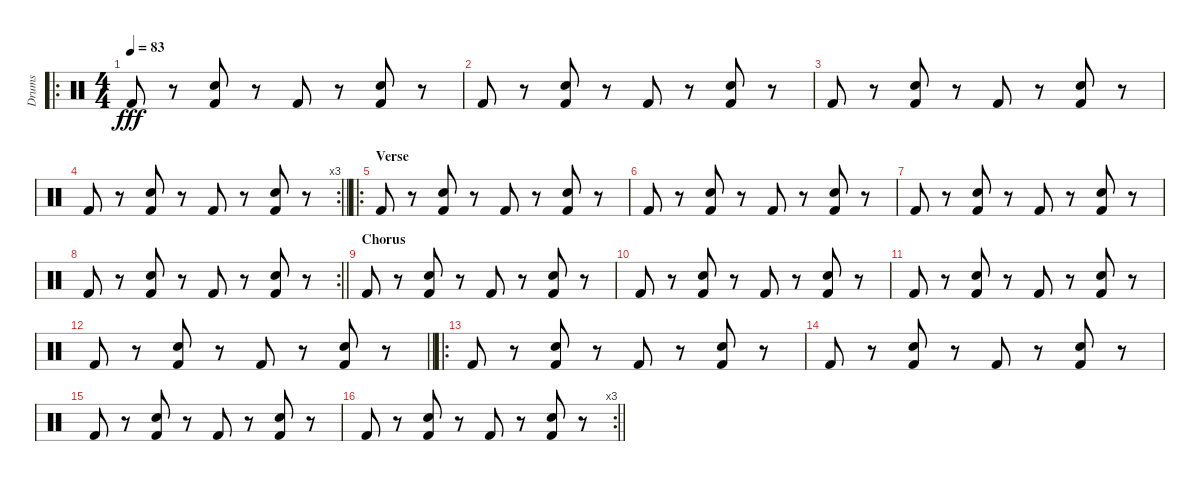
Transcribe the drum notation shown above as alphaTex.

\track ("Drums" "Drums") {instrument percussion}
\staff {score}
\articulation defaults
\ro
\ts (4 4)
\tempo 83
\clef neutral
\ks c "Kick (hit) 2".8{dy fff}
r.8 ("Hand Clap (hit)" "Kick (hit) 2").8 r.8 "Kick (hit) 2".8 r.8 ("Hand Clap (hit)" "Kick (hit) 2").8 r.8 |
"Kick (hit) 2".8 r.8 ("Hand Clap (hit)" "Kick (hit) 2").8 r.8 "Kick (hit) 2".8 r.8 ("Hand Clap (hit)" "Kick (hit) 2").8 r.8 |
"Kick (hit) 2".8 r.8 ("Hand Clap (hit)" "Kick (hit) 2").8 r.8 "Kick (hit) 2".8 r.8 ("Hand Clap (hit)" "Kick (hit) 2").8 r.8 |
\rc 3
\barLineRight lightlight "Kick (hit) 2".8
r.8 ("Hand Clap (hit)" "Kick (hit) 2").8 r.8 "Kick (hit) 2".8 r.8 ("Hand Clap (hit)" "Kick (hit) 2").8 r.8 |
\ro
\section ("" "Verse")
"Kick (hit) 2".8 r.8 ("Hand Clap (hit)" "Kick (hit) 2").8 r.8 "Kick (hit) 2".8 r.8 ("Hand Clap (hit)" "Kick (hit) 2").8 r.8 |
"Kick (hit) 2".8 r.8 ("Hand Clap (hit)" "Kick (hit) 2").8 r.8 "Kick (hit) 2".8 r.8 ("Hand Clap (hit)" "Kick (hit) 2").8 r.8 |
"Kick (hit) 2".8 r.8 ("Hand Clap (hit)" "Kick (hit) 2").8 r.8 "Kick (hit) 2".8 r.8 ("Hand Clap (hit)" "Kick (hit) 2").8 r.8 |
\rc 2
\barLineRight lightlight "Kick (hit) 2".8
r.8 ("Hand Clap (hit)" "Kick (hit) 2").8 r.8 "Kick (hit) 2".8 r.8 ("Hand Clap (hit)" "Kick (hit) 2").8 r.8 |
\section ("" "Chorus")
"Kick (hit) 2".8 r.8 ("Hand Clap (hit)" "Kick (hit) 2").8 r.8 "Kick (hit) 2".8 r.8 ("Hand Clap (hit)" "Kick (hit) 2").8 r.8 |
"Kick (hit) 2".8 r.8 ("Hand Clap (hit)" "Kick (hit) 2").8 r.8 "Kick (hit) 2".8 r.8 ("Hand Clap (hit)" "Kick (hit) 2").8 r.8 |
"Kick (hit) 2".8 r.8 ("Hand Clap (hit)" "Kick (hit) 2").8 r.8 "Kick (hit) 2".8 r.8 ("Hand Clap (hit)" "Kick (hit) 2").8 r.8 |
\barLineRight lightlight "Kick (hit) 2".8
r.8 ("Hand Clap (hit)" "Kick (hit) 2").8 r.8 "Kick (hit) 2".8 r.8 ("Hand Clap (hit)" "Kick (hit) 2").8 r.8 |
\ro "Kick (hit) 2".8
r.8 ("Hand Clap (hit)" "Kick (hit) 2").8 r.8 "Kick (hit) 2".8 r.8 ("Hand Clap (hit)" "Kick (hit) 2").8 r.8 |
"Kick (hit) 2".8 r.8 ("Hand Clap (hit)" "Kick (hit) 2").8 r.8 "Kick (hit) 2".8 r.8 ("Hand Clap (hit)" "Kick (hit) 2").8 r.8 |
"Kick (hit) 2".8 r.8 ("Hand Clap (hit)" "Kick (hit) 2").8 r.8 "Kick (hit) 2".8 r.8 ("Hand Clap (hit)" "Kick (hit) 2").8 r.8 |
\rc 3
\barLineRight lightlight "Kick (hit) 2".8
r.8 ("Hand Clap (hit)" "Kick (hit) 2").8 r.8 "Kick (hit) 2".8 r.8 ("Hand Clap (hit)" "Kick (hit) 2").8 r.8
